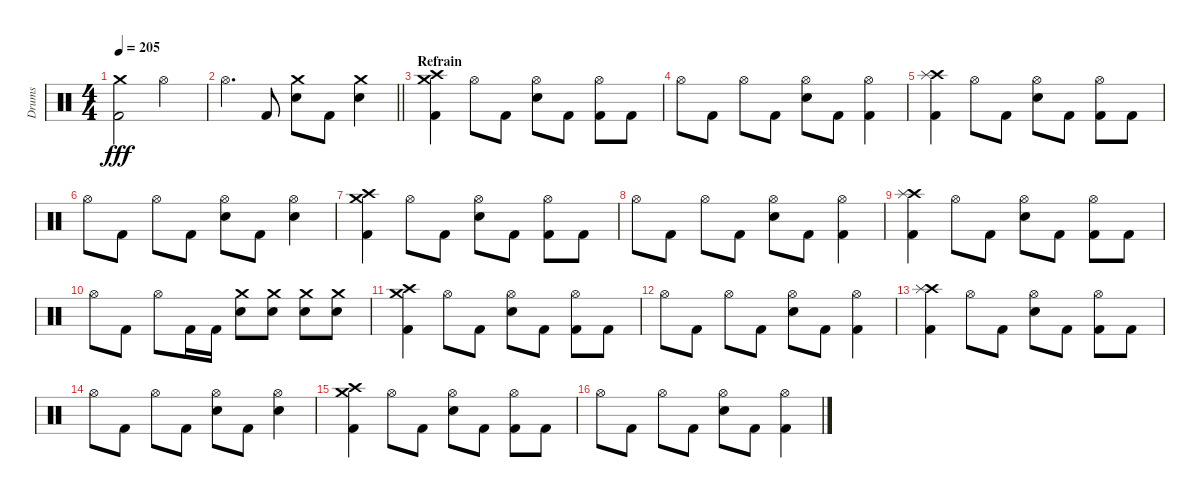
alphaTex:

\track ("Drums" "Drums") {instrument percussion}
\staff {score}
\articulation defaults
\ts (4 4)
\tempo 205
\clef neutral
\ks c
("Crash medium (hit)" "Kick (hit) 2").2{dy fff} "Hi-Hat (open)".2 |
\barLineRight lightlight "Hi-Hat (open)".4{d} "Kick (hit) 2".8
("Crash medium (hit)" "Electric Snare (hit)").8 "Kick (hit) 2".8 ("Crash medium (hit)" "Electric Snare (hit)").4 |
\section ("" "Refrain ")
("Crash medium (hit)" "Crash high (hit)" "Kick (hit) 2").4 "Hi-Hat (open)".8 "Kick (hit) 2".8 ("Hi-Hat (open)" "Electric Snare (hit)").8 "Kick (hit) 2".8 ("Hi-Hat (open)" "Kick (hit) 2").8 "Kick (hit) 2".8 |
"Hi-Hat (open)".8 "Kick (hit) 2".8 "Hi-Hat (open)".8 "Kick (hit) 2".8 ("Hi-Hat (open)" "Electric Snare (hit)").8 "Kick (hit) 2".8 ("Hi-Hat (open)" "Kick (hit) 2").4 |
("Crash high (hit)" "Splash (hit)" "Kick (hit) 2").4 "Hi-Hat (open)".8 "Kick (hit) 2".8 ("Hi-Hat (open)" "Electric Snare (hit)").8 "Kick (hit) 2".8 ("Hi-Hat (open)" "Kick (hit) 2").8 "Kick (hit) 2".8 |
"Hi-Hat (open)".8 "Kick (hit) 2".8 "Hi-Hat (open)".8 "Kick (hit) 2".8 ("Hi-Hat (open)" "Electric Snare (hit)").8 "Kick (hit) 2".8 ("Hi-Hat (open)" "Electric Snare (hit)").4 |
("Crash medium (hit)" "Crash high (hit)" "Kick (hit) 2").4 "Hi-Hat (open)".8 "Kick (hit) 2".8 ("Hi-Hat (open)" "Electric Snare (hit)").8 "Kick (hit) 2".8 ("Hi-Hat (open)" "Kick (hit) 2").8 "Kick (hit) 2".8 |
"Hi-Hat (open)".8 "Kick (hit) 2".8 "Hi-Hat (open)".8 "Kick (hit) 2".8 ("Hi-Hat (open)" "Electric Snare (hit)").8 "Kick (hit) 2".8 ("Hi-Hat (open)" "Kick (hit) 2").4 |
("Crash high (hit)" "Splash (hit)" "Kick (hit) 2").4 "Hi-Hat (open)".8 "Kick (hit) 2".8 ("Hi-Hat (open)" "Electric Snare (hit)").8 "Kick (hit) 2".8 ("Hi-Hat (open)" "Kick (hit) 2").8 "Kick (hit) 2".8 |
"Hi-Hat (open)".8 "Kick (hit) 2".8 "Hi-Hat (open)".8 "Kick (hit) 2".16 "Kick (hit) 2".16 ("Crash medium (hit)" "Electric Snare (hit)").8 ("Crash medium (hit)" "Electric Snare (hit)").8 ("Crash medium (hit)" "Electric Snare (hit)").8 ("Crash medium (hit)" "Electric Snare (hit)").8 |
("Crash medium (hit)" "Crash high (hit)" "Kick (hit) 2").4 "Hi-Hat (open)".8 "Kick (hit) 2".8 ("Hi-Hat (open)" "Electric Snare (hit)").8 "Kick (hit) 2".8 ("Hi-Hat (open)" "Kick (hit) 2").8 "Kick (hit) 2".8 |
"Hi-Hat (open)".8 "Kick (hit) 2".8 "Hi-Hat (open)".8 "Kick (hit) 2".8 ("Hi-Hat (open)" "Electric Snare (hit)").8 "Kick (hit) 2".8 ("Hi-Hat (open)" "Kick (hit) 2").4 |
("Crash high (hit)" "Splash (hit)" "Kick (hit) 2").4 "Hi-Hat (open)".8 "Kick (hit) 2".8 ("Hi-Hat (open)" "Electric Snare (hit)").8 "Kick (hit) 2".8 ("Hi-Hat (open)" "Kick (hit) 2").8 "Kick (hit) 2".8 |
"Hi-Hat (open)".8 "Kick (hit) 2".8 "Hi-Hat (open)".8 "Kick (hit) 2".8 ("Hi-Hat (open)" "Electric Snare (hit)").8 "Kick (hit) 2".8 ("Hi-Hat (open)" "Electric Snare (hit)").4 |
("Crash medium (hit)" "Crash high (hit)" "Kick (hit) 2").4 "Hi-Hat (open)".8 "Kick (hit) 2".8 ("Hi-Hat (open)" "Electric Snare (hit)").8 "Kick (hit) 2".8 ("Hi-Hat (open)" "Kick (hit) 2").8 "Kick (hit) 2".8 |
"Hi-Hat (open)".8 "Kick (hit) 2".8 "Hi-Hat (open)".8 "Kick (hit) 2".8 ("Hi-Hat (open)" "Electric Snare (hit)").8 "Kick (hit) 2".8 ("Hi-Hat (open)" "Kick (hit) 2").4
